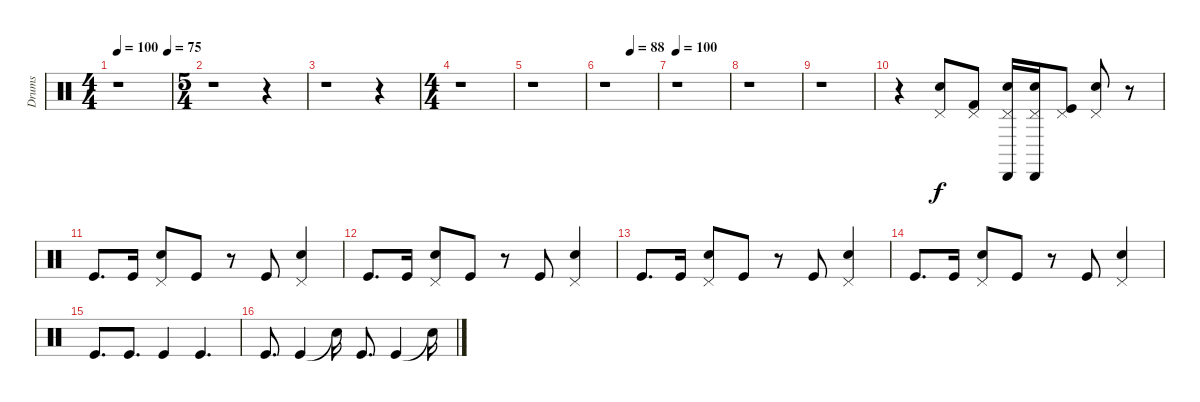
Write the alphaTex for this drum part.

\track ("Drums" "Drums") {instrument percussion}
\staff {score}
\articulation defaults
\ts (4 4)
\tempo 100
\tempo (75 0.9375)
\tempo 100
\clef neutral
\ks c
r.1{dy f} |
\ts (5 4)
r.1 r.4 |
r.1 r.4 |
\ts (4 4)
r.1 |
r.1 |
\tempo (88 0.5)
r.1 |
\tempo 100
r.1 |
r.1 |
r.1 |
r.4 ("Pedal Hi-Hat (hit)" "Electric Snare (hit)").8 ("Pedal Hi-Hat (hit)" "Kick (hit) 2").8 ("Pedal Hi-Hat (hit)" "Snare (hit) 2" "Cabasa (hit)").16 ("Pedal Hi-Hat (hit)" "Snare (hit) 2" "Cabasa (hit)").16 ("Pedal Hi-Hat (hit)" "Kick (hit)").8 ("Pedal Hi-Hat (hit)" "Electric Snare (hit)").8 r.8 |
"Kick (hit)".8{d} "Kick (hit)".16 ("Pedal Hi-Hat (hit)" "Electric Snare (hit)").8 "Kick (hit)".8 r.8 "Kick (hit)".8 ("Pedal Hi-Hat (hit)" "Electric Snare (hit)").4 |
"Kick (hit)".8{d} "Kick (hit)".16 ("Pedal Hi-Hat (hit)" "Electric Snare (hit)").8 "Kick (hit)".8 r.8 "Kick (hit)".8 ("Pedal Hi-Hat (hit)" "Electric Snare (hit)").4 |
"Kick (hit)".8{d} "Kick (hit)".16 ("Pedal Hi-Hat (hit)" "Electric Snare (hit)").8 "Kick (hit)".8 r.8 "Kick (hit)".8 ("Pedal Hi-Hat (hit)" "Electric Snare (hit)").4 |
"Kick (hit)".8{d} "Kick (hit)".16 ("Pedal Hi-Hat (hit)" "Electric Snare (hit)").8 "Kick (hit)".8 r.8 "Kick (hit)".8 ("Pedal Hi-Hat (hit)" "Electric Snare (hit)").4 |
"Kick (hit)".8{d} "Kick (hit)".8{d} "Kick (hit)".4 "Kick (hit)".4{d} |
"Kick (hit)".8{d} "Kick (hit)".4 "Snare (hit)"{t}.16 "Kick (hit)".8{d} "Kick (hit)".4 "Snare (hit)"{t}.16
